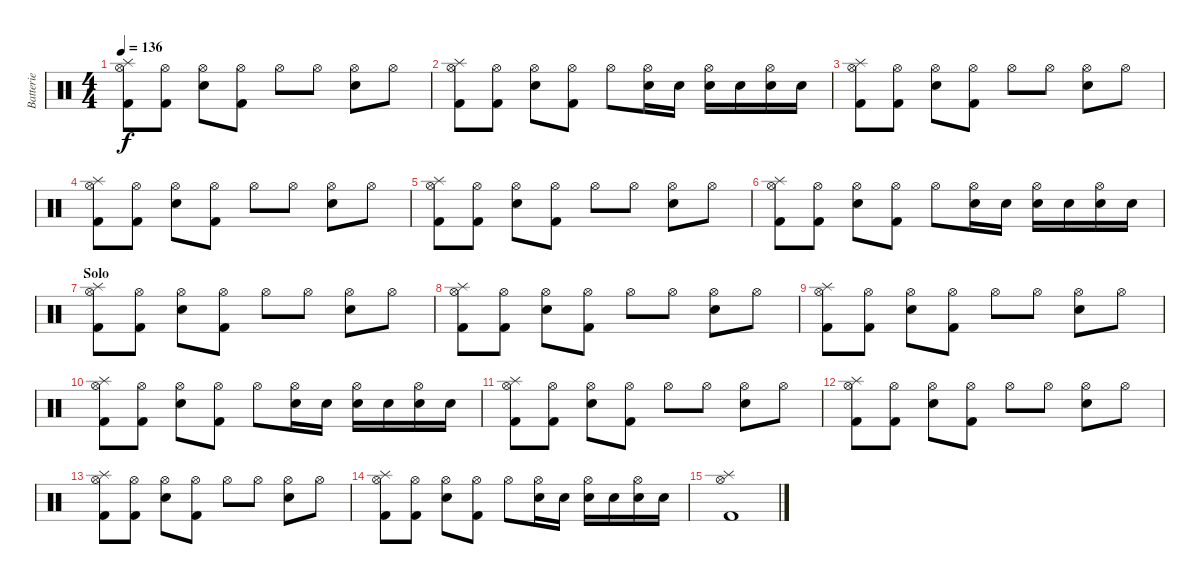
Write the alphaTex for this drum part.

\track ("Batterie" "Batterie") {instrument percussion}
\staff {score}
\articulation defaults
\ts (4 4)
\tempo 136
\clef neutral
\ks c
("Splash (hit)" "Hi-Hat (open)" "Kick (hit) 2").8{dy f} ("Hi-Hat (open)" "Kick (hit) 2").8 ("Hi-Hat (open)" "Snare (hit) 2").8 ("Hi-Hat (open)" "Kick (hit) 2").8 "Hi-Hat (open)".8 "Hi-Hat (open)".8 ("Hi-Hat (open)" "Snare (hit) 2").8 "Hi-Hat (open)".8 |
("Splash (hit)" "Hi-Hat (open)" "Kick (hit) 2").8 ("Hi-Hat (open)" "Kick (hit) 2").8 ("Hi-Hat (open)" "Snare (hit) 2").8 ("Hi-Hat (open)" "Kick (hit) 2").8 "Hi-Hat (open)".8 ("Hi-Hat (open)" "Snare (hit) 2").16 "Snare (hit) 2".16 ("Hi-Hat (open)" "Snare (hit) 2").16 "Snare (hit) 2".16 ("Hi-Hat (open)" "Snare (hit) 2").16 "Snare (hit) 2".16 |
("Splash (hit)" "Hi-Hat (open)" "Kick (hit) 2").8 ("Hi-Hat (open)" "Kick (hit) 2").8 ("Hi-Hat (open)" "Snare (hit) 2").8 ("Hi-Hat (open)" "Kick (hit) 2").8 "Hi-Hat (open)".8 "Hi-Hat (open)".8 ("Hi-Hat (open)" "Snare (hit) 2").8 "Hi-Hat (open)".8 |
("Splash (hit)" "Hi-Hat (open)" "Kick (hit) 2").8 ("Hi-Hat (open)" "Kick (hit) 2").8 ("Hi-Hat (open)" "Snare (hit) 2").8 ("Hi-Hat (open)" "Kick (hit) 2").8 "Hi-Hat (open)".8 "Hi-Hat (open)".8 ("Hi-Hat (open)" "Snare (hit) 2").8 "Hi-Hat (open)".8 |
("Splash (hit)" "Hi-Hat (open)" "Kick (hit) 2").8 ("Hi-Hat (open)" "Kick (hit) 2").8 ("Hi-Hat (open)" "Snare (hit) 2").8 ("Hi-Hat (open)" "Kick (hit) 2").8 "Hi-Hat (open)".8 "Hi-Hat (open)".8 ("Hi-Hat (open)" "Snare (hit) 2").8 "Hi-Hat (open)".8 |
("Splash (hit)" "Hi-Hat (open)" "Kick (hit) 2").8 ("Hi-Hat (open)" "Kick (hit) 2").8 ("Hi-Hat (open)" "Snare (hit) 2").8 ("Hi-Hat (open)" "Kick (hit) 2").8 "Hi-Hat (open)".8 ("Hi-Hat (open)" "Snare (hit) 2").16 "Snare (hit) 2".16 ("Hi-Hat (open)" "Snare (hit) 2").16 "Snare (hit) 2".16 ("Hi-Hat (open)" "Snare (hit) 2").16 "Snare (hit) 2".16 |
\section ("" "Solo")
("Splash (hit)" "Hi-Hat (open)" "Kick (hit) 2").8 ("Hi-Hat (open)" "Kick (hit) 2").8 ("Hi-Hat (open)" "Snare (hit) 2").8 ("Hi-Hat (open)" "Kick (hit) 2").8 "Hi-Hat (open)".8 "Hi-Hat (open)".8 ("Hi-Hat (open)" "Snare (hit) 2").8 "Hi-Hat (open)".8 |
("Splash (hit)" "Hi-Hat (open)" "Kick (hit) 2").8 ("Hi-Hat (open)" "Kick (hit) 2").8 ("Hi-Hat (open)" "Snare (hit) 2").8 ("Hi-Hat (open)" "Kick (hit) 2").8 "Hi-Hat (open)".8 "Hi-Hat (open)".8 ("Hi-Hat (open)" "Snare (hit) 2").8 "Hi-Hat (open)".8 |
("Splash (hit)" "Hi-Hat (open)" "Kick (hit) 2").8 ("Hi-Hat (open)" "Kick (hit) 2").8 ("Hi-Hat (open)" "Snare (hit) 2").8 ("Hi-Hat (open)" "Kick (hit) 2").8 "Hi-Hat (open)".8 "Hi-Hat (open)".8 ("Hi-Hat (open)" "Snare (hit) 2").8 "Hi-Hat (open)".8 |
("Splash (hit)" "Hi-Hat (open)" "Kick (hit) 2").8 ("Hi-Hat (open)" "Kick (hit) 2").8 ("Hi-Hat (open)" "Snare (hit) 2").8 ("Hi-Hat (open)" "Kick (hit) 2").8 "Hi-Hat (open)".8 ("Hi-Hat (open)" "Snare (hit) 2").16 "Snare (hit) 2".16 ("Hi-Hat (open)" "Snare (hit) 2").16 "Snare (hit) 2".16 ("Hi-Hat (open)" "Snare (hit) 2").16 "Snare (hit) 2".16 |
("Splash (hit)" "Hi-Hat (open)" "Kick (hit) 2").8 ("Hi-Hat (open)" "Kick (hit) 2").8 ("Hi-Hat (open)" "Snare (hit) 2").8 ("Hi-Hat (open)" "Kick (hit) 2").8 "Hi-Hat (open)".8 "Hi-Hat (open)".8 ("Hi-Hat (open)" "Snare (hit) 2").8 "Hi-Hat (open)".8 |
("Splash (hit)" "Hi-Hat (open)" "Kick (hit) 2").8 ("Hi-Hat (open)" "Kick (hit) 2").8 ("Hi-Hat (open)" "Snare (hit) 2").8 ("Hi-Hat (open)" "Kick (hit) 2").8 "Hi-Hat (open)".8 "Hi-Hat (open)".8 ("Hi-Hat (open)" "Snare (hit) 2").8 "Hi-Hat (open)".8 |
("Splash (hit)" "Hi-Hat (open)" "Kick (hit) 2").8 ("Hi-Hat (open)" "Kick (hit) 2").8 ("Hi-Hat (open)" "Snare (hit) 2").8 ("Hi-Hat (open)" "Kick (hit) 2").8 "Hi-Hat (open)".8 "Hi-Hat (open)".8 ("Hi-Hat (open)" "Snare (hit) 2").8 "Hi-Hat (open)".8 |
("Splash (hit)" "Hi-Hat (open)" "Kick (hit) 2").8 ("Hi-Hat (open)" "Kick (hit) 2").8 ("Hi-Hat (open)" "Snare (hit) 2").8 ("Hi-Hat (open)" "Kick (hit) 2").8 "Hi-Hat (open)".8 ("Hi-Hat (open)" "Snare (hit) 2").16 "Snare (hit) 2".16 ("Hi-Hat (open)" "Snare (hit) 2").16 "Snare (hit) 2".16 ("Hi-Hat (open)" "Snare (hit) 2").16 "Snare (hit) 2".16 |
("Splash (hit)" "Hi-Hat (open)" "Kick (hit) 2").1
